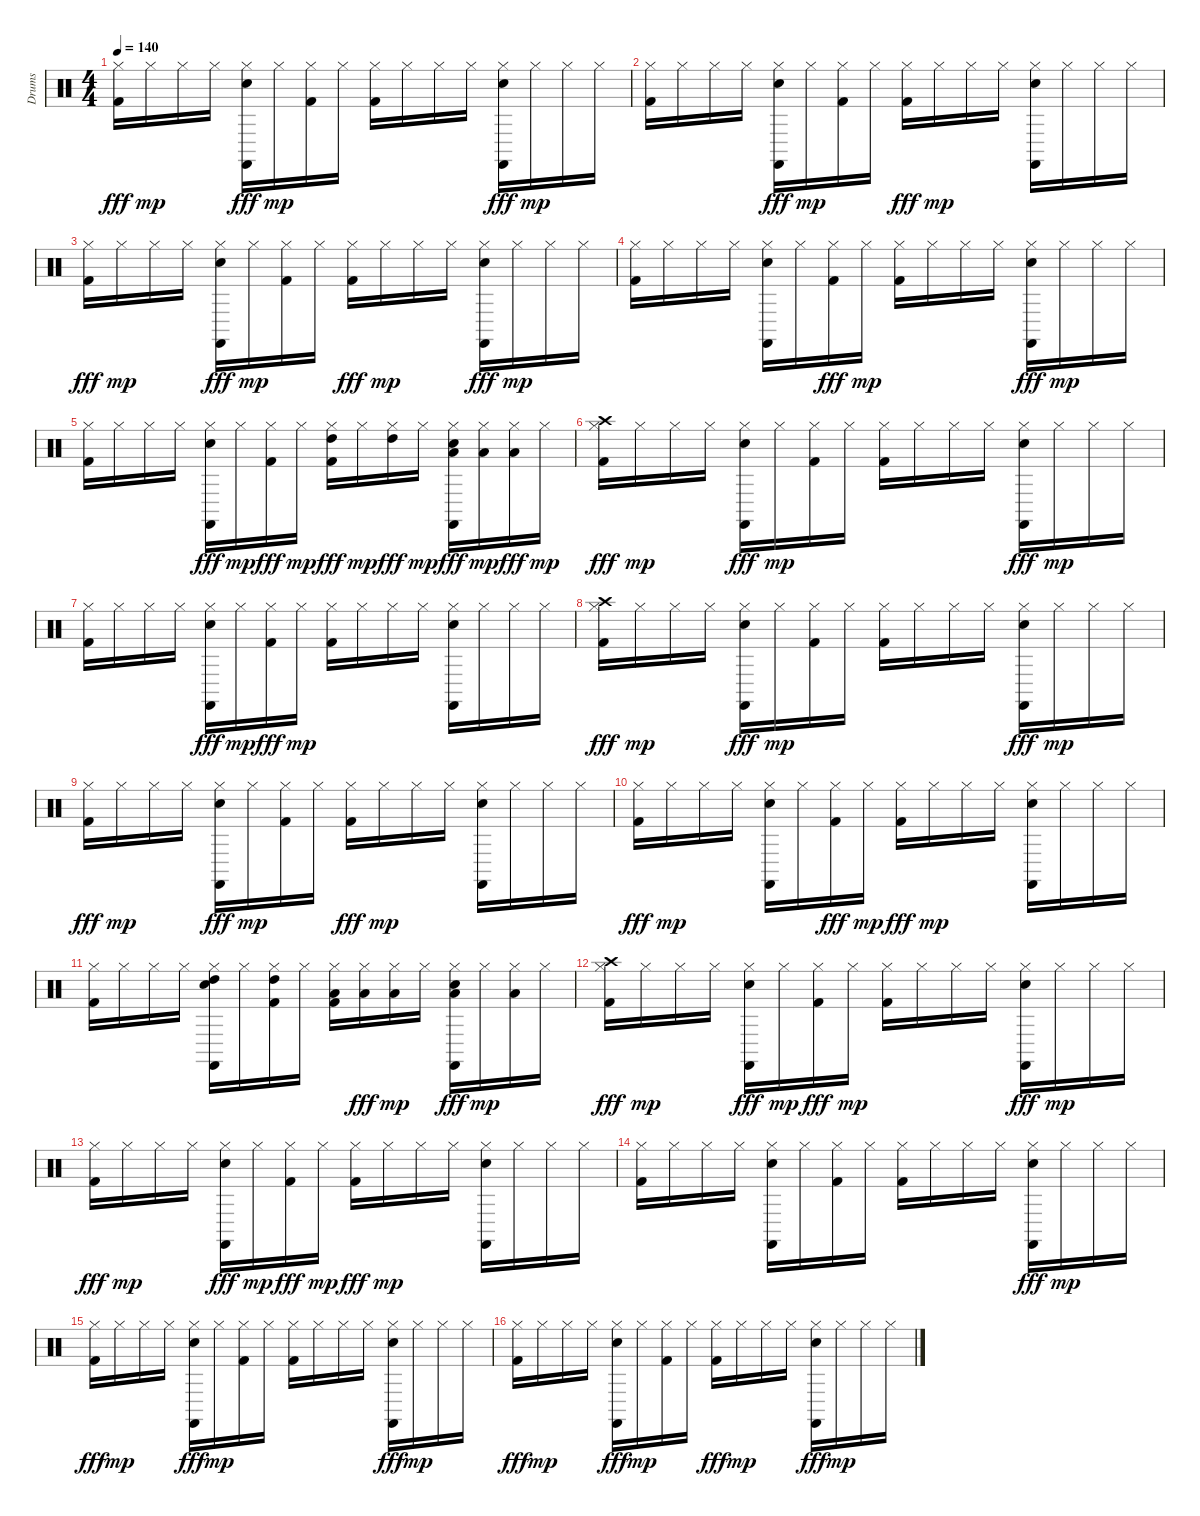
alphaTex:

\track ("Drums" "Drums") {instrument percussion}
\staff {score}
\articulation defaults
\ts (4 4)
\tempo 140
\clef neutral
\ks c
("Hi-Hat (closed)" "Kick (hit) 2").16{dy fff} "Hi-Hat (closed)".16{dy mp} "Hi-Hat (closed)".16 "Hi-Hat (closed)".16 ("Castanets (hit)" "Hi-Hat (closed)" "Snare (hit) 2").16{dy fff} "Hi-Hat (closed)".16{dy mp} ("Kick (hit) 2" "Hi-Hat (closed)").16 "Hi-Hat (closed)".16 ("Kick (hit) 2" "Hi-Hat (closed)").16 "Hi-Hat (closed)".16 "Hi-Hat (closed)".16 "Hi-Hat (closed)".16 ("Castanets (hit)" "Hi-Hat (closed)" "Snare (hit) 2").16{dy fff} "Hi-Hat (closed)".16{dy mp} "Hi-Hat (closed)".16 "Hi-Hat (closed)".16 |
("Kick (hit) 2" "Hi-Hat (closed)").16 "Hi-Hat (closed)".16 "Hi-Hat (closed)".16 "Hi-Hat (closed)".16 ("Snare (hit) 2" "Hi-Hat (closed)" "Castanets (hit)").16{dy fff} "Hi-Hat (closed)".16{dy mp} ("Kick (hit) 2" "Hi-Hat (closed)").16 "Hi-Hat (closed)".16 ("Hi-Hat (closed)" "Kick (hit) 2").16{dy fff} "Hi-Hat (closed)".16{dy mp} "Hi-Hat (closed)".16 "Hi-Hat (closed)".16 ("Castanets (hit)" "Snare (hit) 2" "Hi-Hat (closed)").16 "Hi-Hat (closed)".16 "Hi-Hat (closed)".16 "Hi-Hat (closed)".16 |
("Hi-Hat (closed)" "Kick (hit) 2").16{dy fff} "Hi-Hat (closed)".16{dy mp} "Hi-Hat (closed)".16 "Hi-Hat (closed)".16 ("Hi-Hat (closed)" "Castanets (hit)" "Snare (hit) 2").16{dy fff} "Hi-Hat (closed)".16{dy mp} ("Kick (hit) 2" "Hi-Hat (closed)").16 "Hi-Hat (closed)".16 ("Hi-Hat (closed)" "Kick (hit) 2").16{dy fff} "Hi-Hat (closed)".16{dy mp} "Hi-Hat (closed)".16 "Hi-Hat (closed)".16 ("Snare (hit) 2" "Hi-Hat (closed)" "Castanets (hit)").16{dy fff} "Hi-Hat (closed)".16{dy mp} "Hi-Hat (closed)".16 "Hi-Hat (closed)".16 |
("Kick (hit) 2" "Hi-Hat (closed)").16 "Hi-Hat (closed)".16 "Hi-Hat (closed)".16 "Hi-Hat (closed)".16 ("Snare (hit) 2" "Castanets (hit)" "Hi-Hat (closed)").16 "Hi-Hat (closed)".16 ("Hi-Hat (closed)" "Kick (hit) 2").16{dy fff} "Hi-Hat (closed)".16{dy mp} ("Kick (hit) 2" "Hi-Hat (closed)").16 "Hi-Hat (closed)".16 "Hi-Hat (closed)".16 "Hi-Hat (closed)".16 ("Hi-Hat (closed)" "Snare (hit) 2" "Castanets (hit)").16{dy fff} "Hi-Hat (closed)".16{dy mp} "Hi-Hat (closed)".16 "Hi-Hat (closed)".16 |
("Kick (hit) 2" "Hi-Hat (closed)").16 "Hi-Hat (closed)".16 "Hi-Hat (closed)".16 "Hi-Hat (closed)".16 ("Hi-Hat (closed)" "Castanets (hit)" "Snare (hit) 2").16{dy fff} "Hi-Hat (closed)".16{dy mp} ("Hi-Hat (closed)" "Kick (hit) 2").16{dy fff} "Hi-Hat (closed)".16{dy mp} ("Kick (hit) 2" "Hi-Hat (closed)" "High Tom (hit)").16{dy fff} "Hi-Hat (closed)".16{dy mp} ("Hi-Hat (closed)" "High Tom (hit)").16{dy fff} "Hi-Hat (closed)".16{dy mp} ("Hi-Hat (closed)" "Castanets (hit)" "Low Tom (hit)" "Snare (hit) 2").16{dy fff} ("Low Tom (hit)" "Hi-Hat (closed)").16{dy mp} ("Hi-Hat (closed)" "Low Tom (hit)").16{dy fff} "Hi-Hat (closed)".16{dy mp} |
("Hi-Hat (closed)" "Kick (hit) 2" "Crash high (hit)").16{dy fff} "Hi-Hat (closed)".16{dy mp} "Hi-Hat (closed)".16 "Hi-Hat (closed)".16 ("Hi-Hat (closed)" "Snare (hit) 2" "Castanets (hit)").16{dy fff} "Hi-Hat (closed)".16{dy mp} ("Kick (hit) 2" "Hi-Hat (closed)").16 "Hi-Hat (closed)".16 ("Kick (hit) 2" "Hi-Hat (closed)").16 "Hi-Hat (closed)".16 "Hi-Hat (closed)".16 "Hi-Hat (closed)".16 ("Hi-Hat (closed)" "Snare (hit) 2" "Castanets (hit)").16{dy fff} "Hi-Hat (closed)".16{dy mp} "Hi-Hat (closed)".16 "Hi-Hat (closed)".16 |
("Kick (hit) 2" "Hi-Hat (closed)").16 "Hi-Hat (closed)".16 "Hi-Hat (closed)".16 "Hi-Hat (closed)".16 ("Hi-Hat (closed)" "Snare (hit) 2" "Castanets (hit)").16{dy fff} "Hi-Hat (closed)".16{dy mp} ("Hi-Hat (closed)" "Kick (hit) 2").16{dy fff} "Hi-Hat (closed)".16{dy mp} ("Kick (hit) 2" "Hi-Hat (closed)").16 "Hi-Hat (closed)".16 "Hi-Hat (closed)".16 "Hi-Hat (closed)".16 ("Snare (hit) 2" "Castanets (hit)" "Hi-Hat (closed)").16 "Hi-Hat (closed)".16 "Hi-Hat (closed)".16 "Hi-Hat (closed)".16 |
("Crash high (hit)" "Hi-Hat (closed)" "Kick (hit) 2").16{dy fff} "Hi-Hat (closed)".16{dy mp} "Hi-Hat (closed)".16 "Hi-Hat (closed)".16 ("Hi-Hat (closed)" "Snare (hit) 2" "Castanets (hit)").16{dy fff} "Hi-Hat (closed)".16{dy mp} ("Kick (hit) 2" "Hi-Hat (closed)").16 "Hi-Hat (closed)".16 ("Kick (hit) 2" "Hi-Hat (closed)").16 "Hi-Hat (closed)".16 "Hi-Hat (closed)".16 "Hi-Hat (closed)".16 ("Hi-Hat (closed)" "Snare (hit) 2" "Castanets (hit)").16{dy fff} "Hi-Hat (closed)".16{dy mp} "Hi-Hat (closed)".16 "Hi-Hat (closed)".16 |
("Hi-Hat (closed)" "Kick (hit) 2").16{dy fff} "Hi-Hat (closed)".16{dy mp} "Hi-Hat (closed)".16 "Hi-Hat (closed)".16 ("Snare (hit) 2" "Hi-Hat (closed)" "Castanets (hit)").16{dy fff} "Hi-Hat (closed)".16{dy mp} ("Kick (hit) 2" "Hi-Hat (closed)").16 "Hi-Hat (closed)".16 ("Hi-Hat (closed)" "Kick (hit) 2").16{dy fff} "Hi-Hat (closed)".16{dy mp} "Hi-Hat (closed)".16 "Hi-Hat (closed)".16 ("Castanets (hit)" "Snare (hit) 2" "Hi-Hat (closed)").16 "Hi-Hat (closed)".16 "Hi-Hat (closed)".16 "Hi-Hat (closed)".16 |
("Hi-Hat (closed)" "Kick (hit) 2").16{dy fff} "Hi-Hat (closed)".16{dy mp} "Hi-Hat (closed)".16 "Hi-Hat (closed)".16 ("Snare (hit) 2" "Castanets (hit)" "Hi-Hat (closed)").16 "Hi-Hat (closed)".16 ("Hi-Hat (closed)" "Kick (hit) 2").16{dy fff} "Hi-Hat (closed)".16{dy mp} ("Hi-Hat (closed)" "Kick (hit) 2").16{dy fff} "Hi-Hat (closed)".16{dy mp} "Hi-Hat (closed)".16 "Hi-Hat (closed)".16 ("Castanets (hit)" "Snare (hit) 2" "Hi-Hat (closed)").16 "Hi-Hat (closed)".16 "Hi-Hat (closed)".16 "Hi-Hat (closed)".16 |
("Kick (hit) 2" "Hi-Hat (closed)").16 "Hi-Hat (closed)".16 "Hi-Hat (closed)".16 "Hi-Hat (closed)".16 ("High Tom (hit)" "Snare (hit) 2" "Castanets (hit)" "Hi-Hat (closed)").16 "Hi-Hat (closed)".16 ("Kick (hit) 2" "High Tom (hit)" "Hi-Hat (closed)").16 "Hi-Hat (closed)".16 ("Kick (hit) 2" "Low Tom (hit)" "Hi-Hat (closed)").16 ("Hi-Hat (closed)" "Low Tom (hit)").16{dy fff} ("Low Tom (hit)" "Hi-Hat (closed)").16{dy mp} "Hi-Hat (closed)".16 ("Low Floor Tom (hit)" "Hi-Hat (closed)" "Snare (hit) 2" "Castanets (hit)").16{dy fff} "Hi-Hat (closed)".16{dy mp} ("Low Floor Tom (hit)" "Hi-Hat (closed)").16 "Hi-Hat (closed)".16 |
("Kick (hit) 2" "Hi-Hat (closed)" "Crash high (hit)").16{dy fff} "Hi-Hat (closed)".16{dy mp} "Hi-Hat (closed)".16 "Hi-Hat (closed)".16 ("Snare (hit) 2" "Hi-Hat (closed)" "Castanets (hit)").16{dy fff} "Hi-Hat (closed)".16{dy mp} ("Hi-Hat (closed)" "Kick (hit) 2").16{dy fff} "Hi-Hat (closed)".16{dy mp} ("Kick (hit) 2" "Hi-Hat (closed)").16 "Hi-Hat (closed)".16 "Hi-Hat (closed)".16 "Hi-Hat (closed)".16 ("Snare (hit) 2" "Hi-Hat (closed)" "Castanets (hit)").16{dy fff} "Hi-Hat (closed)".16{dy mp} "Hi-Hat (closed)".16 "Hi-Hat (closed)".16 |
("Hi-Hat (closed)" "Kick (hit) 2").16{dy fff} "Hi-Hat (closed)".16{dy mp} "Hi-Hat (closed)".16 "Hi-Hat (closed)".16 ("Hi-Hat (closed)" "Castanets (hit)" "Snare (hit) 2").16{dy fff} "Hi-Hat (closed)".16{dy mp} ("Hi-Hat (closed)" "Kick (hit) 2").16{dy fff} "Hi-Hat (closed)".16{dy mp} ("Hi-Hat (closed)" "Kick (hit) 2").16{dy fff} "Hi-Hat (closed)".16{dy mp} "Hi-Hat (closed)".16 "Hi-Hat (closed)".16 ("Castanets (hit)" "Snare (hit) 2" "Hi-Hat (closed)").16 "Hi-Hat (closed)".16 "Hi-Hat (closed)".16 "Hi-Hat (closed)".16 |
("Kick (hit) 2" "Hi-Hat (closed)").16 "Hi-Hat (closed)".16 "Hi-Hat (closed)".16 "Hi-Hat (closed)".16 ("Snare (hit) 2" "Castanets (hit)" "Hi-Hat (closed)").16 "Hi-Hat (closed)".16 ("Kick (hit) 2" "Hi-Hat (closed)").16 "Hi-Hat (closed)".16 ("Kick (hit) 2" "Hi-Hat (closed)").16 "Hi-Hat (closed)".16 "Hi-Hat (closed)".16 "Hi-Hat (closed)".16 ("Snare (hit) 2" "Hi-Hat (closed)" "Castanets (hit)").16{dy fff} "Hi-Hat (closed)".16{dy mp} "Hi-Hat (closed)".16 "Hi-Hat (closed)".16 |
("Hi-Hat (closed)" "Kick (hit) 2").16{dy fff} "Hi-Hat (closed)".16{dy mp} "Hi-Hat (closed)".16 "Hi-Hat (closed)".16 ("Hi-Hat (closed)" "Castanets (hit)" "Snare (hit) 2").16{dy fff} "Hi-Hat (closed)".16{dy mp} ("Kick (hit) 2" "Hi-Hat (closed)").16 "Hi-Hat (closed)".16 ("Kick (hit) 2" "Hi-Hat (closed)").16 "Hi-Hat (closed)".16 "Hi-Hat (closed)".16 "Hi-Hat (closed)".16 ("Snare (hit) 2" "Hi-Hat (closed)" "Castanets (hit)").16{dy fff} "Hi-Hat (closed)".16{dy mp} "Hi-Hat (closed)".16 "Hi-Hat (closed)".16 |
("Hi-Hat (closed)" "Kick (hit) 2").16{dy fff} "Hi-Hat (closed)".16{dy mp} "Hi-Hat (closed)".16 "Hi-Hat (closed)".16 ("Snare (hit) 2" "Hi-Hat (closed)" "Castanets (hit)").16{dy fff} "Hi-Hat (closed)".16{dy mp} ("Kick (hit) 2" "Hi-Hat (closed)").16 "Hi-Hat (closed)".16 ("Hi-Hat (closed)" "Kick (hit) 2").16{dy fff} "Hi-Hat (closed)".16{dy mp} "Hi-Hat (closed)".16 "Hi-Hat (closed)".16 ("Hi-Hat (closed)" "Castanets (hit)" "Snare (hit) 2").16{dy fff} "Hi-Hat (closed)".16{dy mp} "Hi-Hat (closed)".16 "Hi-Hat (closed)".16
